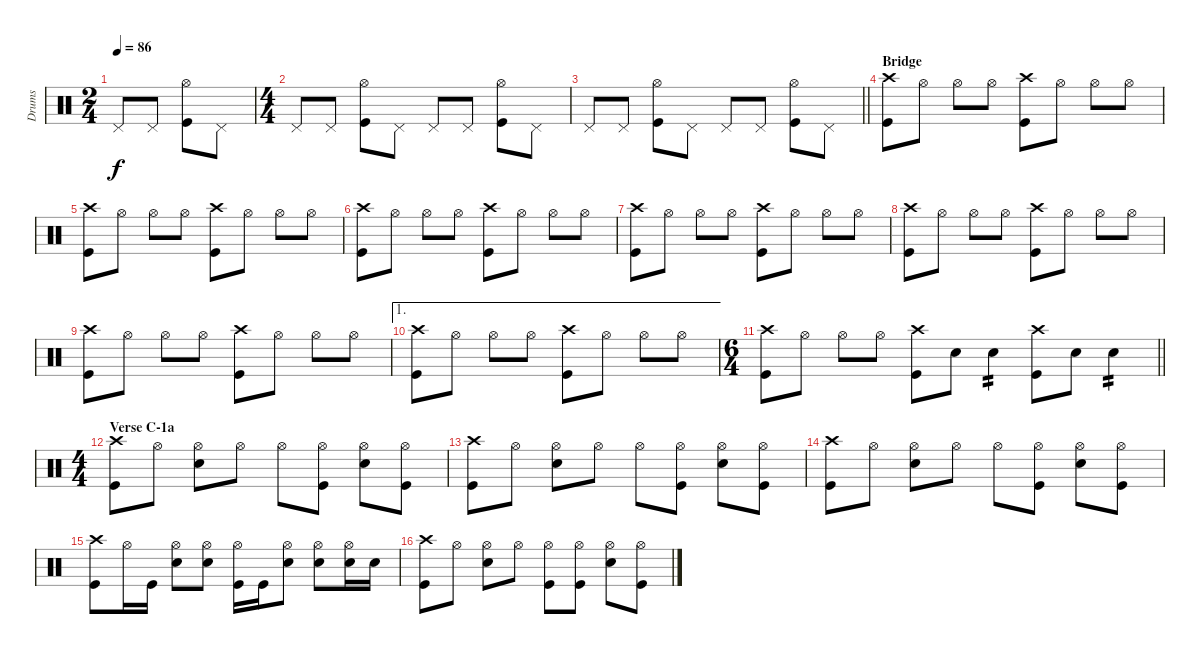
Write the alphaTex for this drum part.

\track ("Drums" "Drums") {instrument percussion}
\staff {score}
\articulation defaults
\ts (2 4)
\tempo 86
\clef neutral
\ks c "Pedal Hi-Hat (hit)".8{dy f} "Pedal Hi-Hat (hit)".8
("Hi-Hat (open)" "Kick (hit)").8 "Pedal Hi-Hat (hit)".8 |
\ts (4 4)
"Pedal Hi-Hat (hit)".8 "Pedal Hi-Hat (hit)".8 ("Hi-Hat (open)" "Kick (hit)").8 "Pedal Hi-Hat (hit)".8 "Pedal Hi-Hat (hit)".8 "Pedal Hi-Hat (hit)".8 ("Hi-Hat (open)" "Kick (hit)").8 "Pedal Hi-Hat (hit)".8 |
\barLineRight lightlight "Pedal Hi-Hat (hit)".8 "Pedal Hi-Hat (hit)".8
("Hi-Hat (open)" "Kick (hit)").8 "Pedal Hi-Hat (hit)".8 "Pedal Hi-Hat (hit)".8 "Pedal Hi-Hat (hit)".8 ("Hi-Hat (open)" "Kick (hit)").8 "Pedal Hi-Hat (hit)".8 |
\section ("" "Bridge")
("Crash high (hit)" "Kick (hit)").8 "Hi-Hat (open)".8 "Hi-Hat (open)".8 "Hi-Hat (open)".8 ("Crash high (hit)" "Kick (hit)").8 "Hi-Hat (open)".8 "Hi-Hat (open)".8 "Hi-Hat (open)".8 |
("Crash high (hit)" "Kick (hit)").8 "Hi-Hat (open)".8 "Hi-Hat (open)".8 "Hi-Hat (open)".8 ("Crash high (hit)" "Kick (hit)").8 "Hi-Hat (open)".8 "Hi-Hat (open)".8 "Hi-Hat (open)".8 |
("Crash high (hit)" "Kick (hit)").8 "Hi-Hat (open)".8 "Hi-Hat (open)".8 "Hi-Hat (open)".8 ("Crash high (hit)" "Kick (hit)").8 "Hi-Hat (open)".8 "Hi-Hat (open)".8 "Hi-Hat (open)".8 |
("Crash high (hit)" "Kick (hit)").8 "Hi-Hat (open)".8 "Hi-Hat (open)".8 "Hi-Hat (open)".8 ("Crash high (hit)" "Kick (hit)").8 "Hi-Hat (open)".8 "Hi-Hat (open)".8 "Hi-Hat (open)".8 |
("Crash high (hit)" "Kick (hit)").8 "Hi-Hat (open)".8 "Hi-Hat (open)".8 "Hi-Hat (open)".8 ("Crash high (hit)" "Kick (hit)").8 "Hi-Hat (open)".8 "Hi-Hat (open)".8 "Hi-Hat (open)".8 |
("Crash high (hit)" "Kick (hit)").8 "Hi-Hat (open)".8 "Hi-Hat (open)".8 "Hi-Hat (open)".8 ("Crash high (hit)" "Kick (hit)").8 "Hi-Hat (open)".8 "Hi-Hat (open)".8 "Hi-Hat (open)".8 |
\ae 1
("Crash high (hit)" "Kick (hit)").8 "Hi-Hat (open)".8 "Hi-Hat (open)".8 "Hi-Hat (open)".8 ("Crash high (hit)" "Kick (hit)").8 "Hi-Hat (open)".8 "Hi-Hat (open)".8 "Hi-Hat (open)".8 |
\ts (6 4)
\barLineRight lightlight
("Crash high (hit)" "Kick (hit)").8 "Hi-Hat (open)".8 "Hi-Hat (open)".8 "Hi-Hat (open)".8 ("Crash high (hit)" "Kick (hit)").8 "Snare (hit) 2".8 "Snare (hit) 2".4{tp 2} ("Crash high (hit)" "Kick (hit)").8 "Snare (hit) 2".8 "Snare (hit) 2".4{tp 2} |
\ts (4 4)
\section ("" "Verse C-1a")
("Crash high (hit)" "Kick (hit)").8 "Hi-Hat (open)".8 ("Hi-Hat (open)" "Snare (hit) 2").8 "Hi-Hat (open)".8 "Hi-Hat (open)".8 ("Hi-Hat (open)" "Kick (hit)").8 ("Hi-Hat (open)" "Snare (hit) 2").8 ("Hi-Hat (open)" "Kick (hit)").8 |
("Crash high (hit)" "Kick (hit)").8 "Hi-Hat (open)".8 ("Hi-Hat (open)" "Snare (hit) 2").8 "Hi-Hat (open)".8 "Hi-Hat (open)".8 ("Hi-Hat (open)" "Kick (hit)").8 ("Hi-Hat (open)" "Snare (hit) 2").8 ("Hi-Hat (open)" "Kick (hit)").8 |
("Crash high (hit)" "Kick (hit)").8 "Hi-Hat (open)".8 ("Hi-Hat (open)" "Snare (hit) 2").8 "Hi-Hat (open)".8 "Hi-Hat (open)".8 ("Hi-Hat (open)" "Kick (hit)").8 ("Hi-Hat (open)" "Snare (hit) 2").8 ("Hi-Hat (open)" "Kick (hit)").8 |
("Crash high (hit)" "Kick (hit)").8 "Hi-Hat (open)".16 "Kick (hit)".16 ("Hi-Hat (open)" "Snare (hit) 2").8 ("Hi-Hat (open)" "Snare (hit) 2").8 ("Hi-Hat (open)" "Kick (hit)").16 "Kick (hit)".16 ("Hi-Hat (open)" "Snare (hit) 2").8 ("Hi-Hat (open)" "Snare (hit) 2").8 ("Hi-Hat (open)" "Snare (hit) 2").16 "Snare (hit) 2".16 |
("Crash high (hit)" "Kick (hit)").8 "Hi-Hat (open)".8 ("Hi-Hat (open)" "Snare (hit) 2").8 "Hi-Hat (open)".8 ("Hi-Hat (open)" "Kick (hit)").8 ("Hi-Hat (open)" "Kick (hit)").8 ("Hi-Hat (open)" "Snare (hit) 2").8 ("Hi-Hat (open)" "Kick (hit)").8
